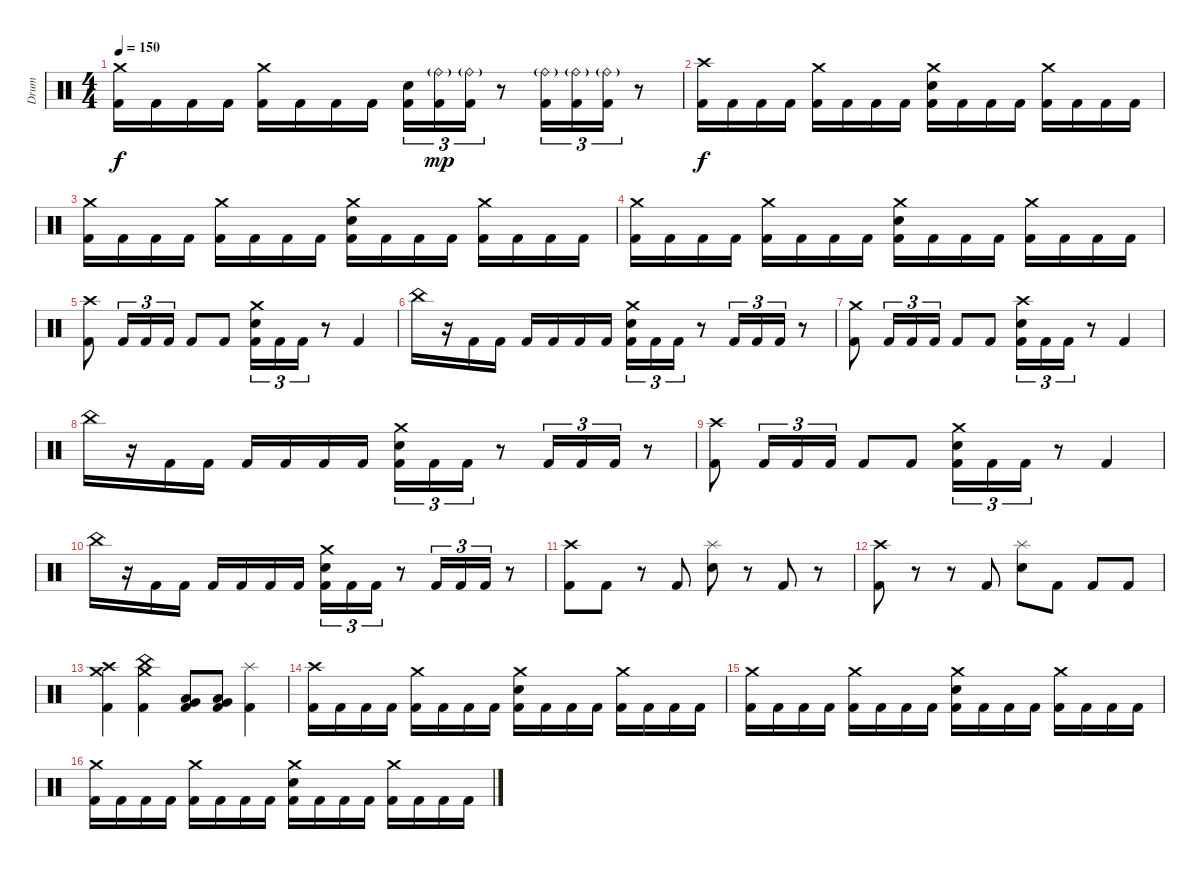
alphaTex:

\track ("Drum" "Drum") {instrument percussion}
\staff {score}
\articulation defaults
\ts (4 4)
\tempo 150
\clef neutral
\ks c
("Crash medium (hit)" "Kick (hit) 2").16{dy f} "Kick (hit) 2".16 "Kick (hit) 2".16 "Kick (hit) 2".16 ("Crash medium (hit)" "Kick (hit) 2").16 "Kick (hit) 2".16 "Kick (hit) 2".16 "Kick (hit) 2".16 ("Electric Snare (hit)" "Kick (hit) 2").16{tu (3 2)} ("Ride (bell)"{g} "Kick (hit) 2").16{tu (3 2) dy mp} ("Ride (bell)"{g} "Kick (hit) 2").16{tu (3 2)} r.8 ("Ride (bell)"{g} "Kick (hit) 2").16{tu (3 2)} ("Ride (bell)"{g} "Kick (hit) 2").16{tu (3 2)} ("Ride (bell)"{g} "Kick (hit) 2").16{tu (3 2)} r.8 |
("Crash high (hit)" "Kick (hit) 2").16{dy f} "Kick (hit) 2".16 "Kick (hit) 2".16 "Kick (hit) 2".16 ("Crash medium (hit)" "Kick (hit) 2").16 "Kick (hit) 2".16 "Kick (hit) 2".16 "Kick (hit) 2".16 ("Crash medium (hit)" "Electric Snare (hit)" "Kick (hit) 2").16 "Kick (hit) 2".16 "Kick (hit) 2".16 "Kick (hit) 2".16 ("Crash medium (hit)" "Kick (hit) 2").16 "Kick (hit) 2".16 "Kick (hit) 2".16 "Kick (hit) 2".16 |
("Crash medium (hit)" "Kick (hit) 2").16 "Kick (hit) 2".16 "Kick (hit) 2".16 "Kick (hit) 2".16 ("Crash medium (hit)" "Kick (hit) 2").16 "Kick (hit) 2".16 "Kick (hit) 2".16 "Kick (hit) 2".16 ("Crash medium (hit)" "Electric Snare (hit)" "Kick (hit) 2").16 "Kick (hit) 2".16 "Kick (hit) 2".16 "Kick (hit) 2".16 ("Crash medium (hit)" "Kick (hit) 2").16 "Kick (hit) 2".16 "Kick (hit) 2".16 "Kick (hit) 2".16 |
("Crash medium (hit)" "Kick (hit) 2").16 "Kick (hit) 2".16 "Kick (hit) 2".16 "Kick (hit) 2".16 ("Crash medium (hit)" "Kick (hit) 2").16 "Kick (hit) 2".16 "Kick (hit) 2".16 "Kick (hit) 2".16 ("Crash medium (hit)" "Electric Snare (hit)" "Kick (hit) 2").16 "Kick (hit) 2".16 "Kick (hit) 2".16 "Kick (hit) 2".16 ("Crash medium (hit)" "Kick (hit) 2").16 "Kick (hit) 2".16 "Kick (hit) 2".16 "Kick (hit) 2".16 |
("Crash high (hit)" "Kick (hit) 2").8 "Kick (hit) 2".16{tu (3 2)} "Kick (hit) 2".16{tu (3 2)} "Kick (hit) 2".16{tu (3 2)} "Kick (hit) 2".8 "Kick (hit) 2".8 ("Crash medium (hit)" "Electric Snare (hit)" "Kick (hit) 2").16{tu (3 2)} "Kick (hit) 2".16{tu (3 2)} "Kick (hit) 2".16{tu (3 2)} r.8 "Kick (hit) 2".4 |
"China (hit)".16 r.16 "Kick (hit) 2".16 "Kick (hit) 2".16 "Kick (hit) 2".16 "Kick (hit) 2".16 "Kick (hit) 2".16 "Kick (hit) 2".16 ("Crash medium (hit)" "Electric Snare (hit)" "Kick (hit) 2").16{tu (3 2)} "Kick (hit) 2".16{tu (3 2)} "Kick (hit) 2".16{tu (3 2)} r.8 "Kick (hit) 2".16{tu (3 2)} "Kick (hit) 2".16{tu (3 2)} "Kick (hit) 2".16{tu (3 2)} r.8 |
("Crash medium (hit)" "Kick (hit) 2").8 "Kick (hit) 2".16{tu (3 2)} "Kick (hit) 2".16{tu (3 2)} "Kick (hit) 2".16{tu (3 2)} "Kick (hit) 2".8 "Kick (hit) 2".8 ("Crash high (hit)" "Electric Snare (hit)" "Kick (hit) 2").16{tu (3 2)} "Kick (hit) 2".16{tu (3 2)} "Kick (hit) 2".16{tu (3 2)} r.8 "Kick (hit) 2".4 |
"China (hit)".16 r.16 "Kick (hit) 2".16 "Kick (hit) 2".16 "Kick (hit) 2".16 "Kick (hit) 2".16 "Kick (hit) 2".16 "Kick (hit) 2".16 ("Crash medium (hit)" "Electric Snare (hit)" "Kick (hit) 2").16{tu (3 2)} "Kick (hit) 2".16{tu (3 2)} "Kick (hit) 2".16{tu (3 2)} r.8 "Kick (hit) 2".16{tu (3 2)} "Kick (hit) 2".16{tu (3 2)} "Kick (hit) 2".16{tu (3 2)} r.8 |
("Crash high (hit)" "Kick (hit) 2").8 "Kick (hit) 2".16{tu (3 2)} "Kick (hit) 2".16{tu (3 2)} "Kick (hit) 2".16{tu (3 2)} "Kick (hit) 2".8 "Kick (hit) 2".8 ("Crash medium (hit)" "Electric Snare (hit)" "Kick (hit) 2").16{tu (3 2)} "Kick (hit) 2".16{tu (3 2)} "Kick (hit) 2".16{tu (3 2)} r.8 "Kick (hit) 2".4 |
"China (hit)".16 r.16 "Kick (hit) 2".16 "Kick (hit) 2".16 "Kick (hit) 2".16 "Kick (hit) 2".16 "Kick (hit) 2".16 "Kick (hit) 2".16 ("Crash medium (hit)" "Electric Snare (hit)" "Kick (hit) 2").16{tu (3 2)} "Kick (hit) 2".16{tu (3 2)} "Kick (hit) 2".16{tu (3 2)} r.8 "Kick (hit) 2".16{tu (3 2)} "Kick (hit) 2".16{tu (3 2)} "Kick (hit) 2".16{tu (3 2)} r.8 |
("Crash high (hit)" "Kick (hit) 2").8 "Kick (hit) 2".8 r.8 "Kick (hit) 2".8 ("Splash (hit)" "Electric Snare (hit)").8 r.8 "Kick (hit) 2".8 r.8 |
("Crash high (hit)" "Kick (hit) 2").8 r.8 r.8 "Kick (hit) 2".8 ("Splash (hit)" "Electric Snare (hit)").8 "Kick (hit) 2".8 "Kick (hit) 2".8 "Kick (hit) 2".8 |
("Crash high (hit)" "Crash medium (hit)" "Kick (hit) 2").4 ("China (hit)" "Crash medium (hit)" "Kick (hit) 2").4 ("Very Low Tom (hit)" "Low Floor Tom (hit)" "Kick (hit) 2").8 ("Very Low Tom (hit)" "Low Floor Tom (hit)" "Kick (hit) 2").8 ("Splash (hit)" "Kick (hit) 2").4 |
("Crash high (hit)" "Kick (hit) 2").16 "Kick (hit) 2".16 "Kick (hit) 2".16 "Kick (hit) 2".16 ("Crash medium (hit)" "Kick (hit) 2").16 "Kick (hit) 2".16 "Kick (hit) 2".16 "Kick (hit) 2".16 ("Crash medium (hit)" "Electric Snare (hit)" "Kick (hit) 2").16 "Kick (hit) 2".16 "Kick (hit) 2".16 "Kick (hit) 2".16 ("Crash medium (hit)" "Kick (hit) 2").16 "Kick (hit) 2".16 "Kick (hit) 2".16 "Kick (hit) 2".16 |
("Crash medium (hit)" "Kick (hit) 2").16 "Kick (hit) 2".16 "Kick (hit) 2".16 "Kick (hit) 2".16 ("Crash medium (hit)" "Kick (hit) 2").16 "Kick (hit) 2".16 "Kick (hit) 2".16 "Kick (hit) 2".16 ("Crash medium (hit)" "Electric Snare (hit)" "Kick (hit) 2").16 "Kick (hit) 2".16 "Kick (hit) 2".16 "Kick (hit) 2".16 ("Crash medium (hit)" "Kick (hit) 2").16 "Kick (hit) 2".16 "Kick (hit) 2".16 "Kick (hit) 2".16 |
("Crash medium (hit)" "Kick (hit) 2").16 "Kick (hit) 2".16 "Kick (hit) 2".16 "Kick (hit) 2".16 ("Crash medium (hit)" "Kick (hit) 2").16 "Kick (hit) 2".16 "Kick (hit) 2".16 "Kick (hit) 2".16 ("Crash medium (hit)" "Electric Snare (hit)" "Kick (hit) 2").16 "Kick (hit) 2".16 "Kick (hit) 2".16 "Kick (hit) 2".16 ("Crash medium (hit)" "Kick (hit) 2").16 "Kick (hit) 2".16 "Kick (hit) 2".16 "Kick (hit) 2".16
